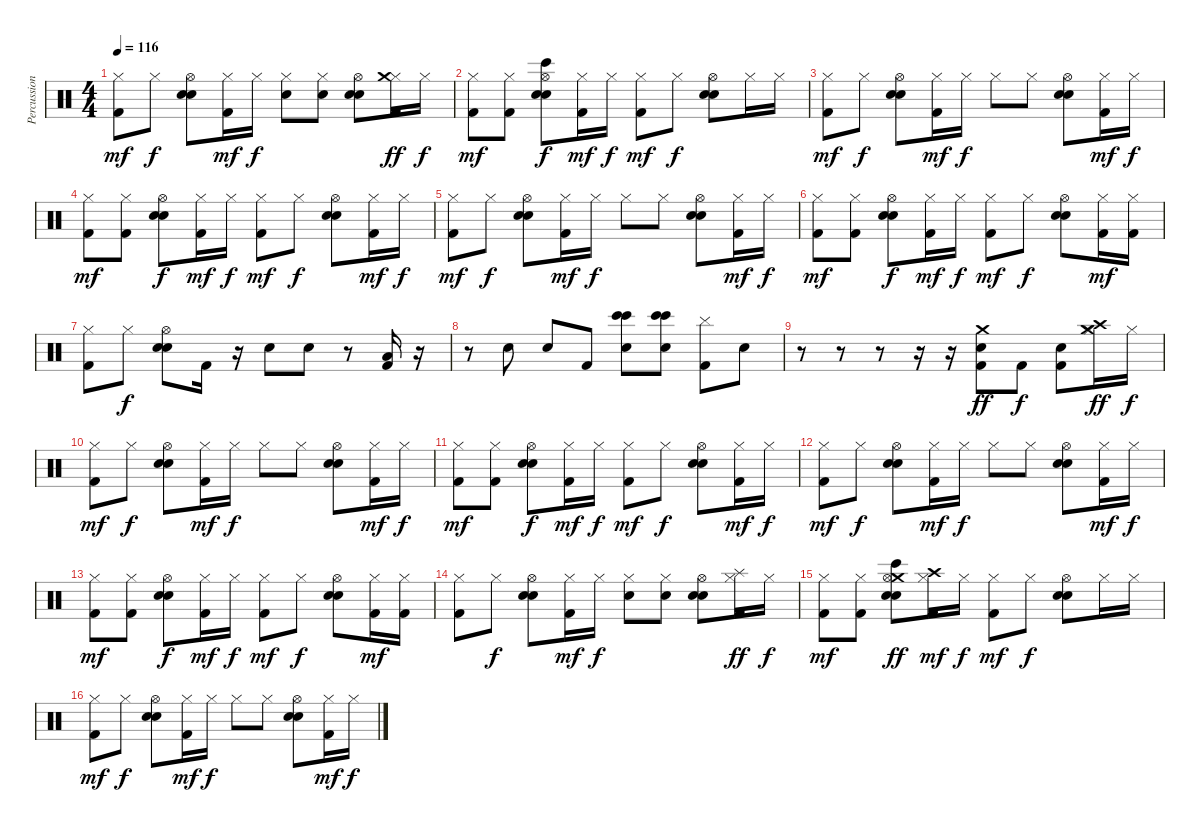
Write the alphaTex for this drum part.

\track ("Percussion" "Percussion") {instrument percussion}
\staff {score}
\articulation defaults
\ts (4 4)
\tempo 116
\clef neutral
\ks c
("Hi-Hat (closed)" "Kick (hit) 2").8{dy mf} "Hi-Hat (closed)".8{dy f} ("Hi-Hat (open)" "Electric Snare (hit)" "Hand Clap (hit)").8 ("Hi-Hat (closed)" "Kick (hit) 2").16{dy mf} "Hi-Hat (closed)".16{dy f} ("Hi-Hat (closed)" "Electric Snare (hit)").8 ("Hi-Hat (closed)" "Electric Snare (hit)").8 ("Hi-Hat (open)" "Electric Snare (hit)" "Hand Clap (hit)").8 ("Hi-Hat (closed)" "Kick (hit) 2" "Crash medium (hit)").16{dy ff} "Hi-Hat (closed)".16{dy f} |
("Hi-Hat (closed)" "Kick (hit) 2").8{dy mf} ("Hi-Hat (closed)" "Kick (hit) 2").8 ("Hi-Hat (open)" "Electric Snare (hit)" "Hand Clap (hit)" "Bongo High (hit)").8{dy f} ("Hi-Hat (closed)" "Kick (hit) 2").16{dy mf} "Hi-Hat (closed)".16{dy f} ("Hi-Hat (closed)" "Kick (hit) 2").8{dy mf} "Hi-Hat (closed)".8{dy f} ("Hi-Hat (open)" "Electric Snare (hit)" "Hand Clap (hit)").8 "Hi-Hat (closed)".16 "Hi-Hat (closed)".16 |
("Hi-Hat (closed)" "Kick (hit) 2").8{dy mf} "Hi-Hat (closed)".8{dy f} ("Hi-Hat (open)" "Electric Snare (hit)" "Hand Clap (hit)").8 ("Hi-Hat (closed)" "Kick (hit) 2").16{dy mf} "Hi-Hat (closed)".16{dy f} "Hi-Hat (closed)".8 "Hi-Hat (closed)".8 ("Hi-Hat (open)" "Electric Snare (hit)" "Hand Clap (hit)").8 ("Hi-Hat (closed)" "Kick (hit) 2").16{dy mf} "Hi-Hat (closed)".16{dy f} |
("Hi-Hat (closed)" "Kick (hit) 2").8{dy mf} ("Hi-Hat (closed)" "Kick (hit) 2").8 ("Hi-Hat (open)" "Electric Snare (hit)" "Hand Clap (hit)").8{dy f} ("Hi-Hat (closed)" "Kick (hit) 2").16{dy mf} "Hi-Hat (closed)".16{dy f} ("Hi-Hat (closed)" "Kick (hit) 2").8{dy mf} "Hi-Hat (closed)".8{dy f} ("Hi-Hat (open)" "Electric Snare (hit)" "Hand Clap (hit)").8 ("Hi-Hat (closed)" "Kick (hit) 2").16{dy mf} "Hi-Hat (closed)".16{dy f} |
("Hi-Hat (closed)" "Kick (hit) 2").8{dy mf} "Hi-Hat (closed)".8{dy f} ("Hi-Hat (open)" "Electric Snare (hit)" "Hand Clap (hit)").8 ("Hi-Hat (closed)" "Kick (hit) 2").16{dy mf} "Hi-Hat (closed)".16{dy f} "Hi-Hat (closed)".8 "Hi-Hat (closed)".8 ("Hi-Hat (open)" "Electric Snare (hit)" "Hand Clap (hit)").8 ("Hi-Hat (closed)" "Kick (hit) 2").16{dy mf} "Hi-Hat (closed)".16{dy f} |
("Hi-Hat (closed)" "Kick (hit) 2").8{dy mf} ("Hi-Hat (closed)" "Kick (hit) 2").8 ("Hi-Hat (open)" "Electric Snare (hit)" "Hand Clap (hit)").8{dy f} ("Hi-Hat (closed)" "Kick (hit) 2").16{dy mf} "Hi-Hat (closed)".16{dy f} ("Hi-Hat (closed)" "Kick (hit) 2").8{dy mf} "Hi-Hat (closed)".8{dy f} ("Hi-Hat (open)" "Electric Snare (hit)" "Hand Clap (hit)").8 ("Hi-Hat (closed)" "Kick (hit) 2").16{dy mf} ("Hi-Hat (closed)" "Kick (hit) 2").16 |
("Hi-Hat (closed)" "Kick (hit) 2").8 "Hi-Hat (closed)".8{dy f} ("Hi-Hat (open)" "Electric Snare (hit)" "Hand Clap (hit)").8 "Kick (hit) 2".16 r.16 "Electric Snare (hit)".8 "Electric Snare (hit)".8 r.8 ("Kick (hit) 2" "Low Floor Tom (hit)").16 r.16 |
r.8 "Electric Snare (hit)".8 "Electric Snare (hit)".8 "Kick (hit) 2".8 ("Electric Snare (hit)" "Bongo High (hit)" "Bongo High (hit)").8 ("Electric Snare (hit)" "Bongo High (hit)" "Bongo High (hit)").8 ("Kick (hit) 2" "Cymbal (hit)").8 "Electric Snare (hit)".8 |
r.8 r.8 r.8 r.16 r.16 ("Crash medium (hit)" "Electric Snare (hit)" "Kick (hit) 2").8{dy ff} "Kick (hit) 2".8{dy f} ("Electric Snare (hit)" "Kick (hit) 2").8 ("Hi-Hat (closed)" "Crash high (hit)" "Crash medium (hit)").16{dy ff} "Hi-Hat (closed)".16{dy f} |
("Hi-Hat (closed)" "Kick (hit) 2").8{dy mf} "Hi-Hat (closed)".8{dy f} ("Hi-Hat (open)" "Electric Snare (hit)" "Hand Clap (hit)").8 ("Hi-Hat (closed)" "Kick (hit) 2").16{dy mf} "Hi-Hat (closed)".16{dy f} "Hi-Hat (closed)".8 "Hi-Hat (closed)".8 ("Hi-Hat (open)" "Electric Snare (hit)" "Hand Clap (hit)").8 ("Hi-Hat (closed)" "Kick (hit) 2").16{dy mf} "Hi-Hat (closed)".16{dy f} |
("Hi-Hat (closed)" "Kick (hit) 2").8{dy mf} ("Hi-Hat (closed)" "Kick (hit) 2").8 ("Hi-Hat (open)" "Electric Snare (hit)" "Hand Clap (hit)").8{dy f} ("Hi-Hat (closed)" "Kick (hit) 2").16{dy mf} "Hi-Hat (closed)".16{dy f} ("Hi-Hat (closed)" "Kick (hit) 2").8{dy mf} "Hi-Hat (closed)".8{dy f} ("Hi-Hat (open)" "Electric Snare (hit)" "Hand Clap (hit)").8 ("Hi-Hat (closed)" "Kick (hit) 2").16{dy mf} "Hi-Hat (closed)".16{dy f} |
("Hi-Hat (closed)" "Kick (hit) 2").8{dy mf} "Hi-Hat (closed)".8{dy f} ("Hi-Hat (open)" "Electric Snare (hit)" "Hand Clap (hit)").8 ("Hi-Hat (closed)" "Kick (hit) 2").16{dy mf} "Hi-Hat (closed)".16{dy f} "Hi-Hat (closed)".8 "Hi-Hat (closed)".8 ("Hi-Hat (open)" "Electric Snare (hit)" "Hand Clap (hit)").8 ("Hi-Hat (closed)" "Kick (hit) 2").16{dy mf} "Hi-Hat (closed)".16{dy f} |
("Hi-Hat (closed)" "Kick (hit) 2").8{dy mf} ("Hi-Hat (closed)" "Kick (hit) 2").8 ("Hi-Hat (open)" "Electric Snare (hit)" "Hand Clap (hit)").8{dy f} ("Hi-Hat (closed)" "Kick (hit) 2").16{dy mf} "Hi-Hat (closed)".16{dy f} ("Hi-Hat (closed)" "Kick (hit) 2").8{dy mf} "Hi-Hat (closed)".8{dy f} ("Hi-Hat (open)" "Electric Snare (hit)" "Hand Clap (hit)").8 ("Hi-Hat (closed)" "Kick (hit) 2").16{dy mf} ("Hi-Hat (closed)" "Kick (hit) 2").16 |
("Hi-Hat (closed)" "Kick (hit) 2").8 "Hi-Hat (closed)".8{dy f} ("Hi-Hat (open)" "Electric Snare (hit)" "Hand Clap (hit)").8 ("Hi-Hat (closed)" "Kick (hit) 2").16{dy mf} "Hi-Hat (closed)".16{dy f} ("Hi-Hat (closed)" "Electric Snare (hit)").8 ("Hi-Hat (closed)" "Electric Snare (hit)").8 ("Hi-Hat (open)" "Electric Snare (hit)" "Hand Clap (hit)").8 ("Hi-Hat (closed)" "Kick (hit) 2" "Splash (hit)").16{dy ff} "Hi-Hat (closed)".16{dy f} |
("Hi-Hat (closed)" "Kick (hit) 2").8{dy mf} ("Hi-Hat (closed)" "Kick (hit) 2").8 ("Crash medium (hit)" "Hi-Hat (open)" "Electric Snare (hit)" "Hand Clap (hit)" "Bongo High (hit)").8{dy ff} ("Crash high (hit)" "Hi-Hat (closed)" "Kick (hit) 2").16{dy mf} "Hi-Hat (closed)".16{dy f} ("Hi-Hat (closed)" "Kick (hit) 2").8{dy mf} "Hi-Hat (closed)".8{dy f} ("Hi-Hat (open)" "Electric Snare (hit)" "Hand Clap (hit)").8 "Hi-Hat (closed)".16 "Hi-Hat (closed)".16 |
("Hi-Hat (closed)" "Kick (hit) 2").8{dy mf} "Hi-Hat (closed)".8{dy f} ("Hi-Hat (open)" "Electric Snare (hit)" "Hand Clap (hit)").8 ("Hi-Hat (closed)" "Kick (hit) 2").16{dy mf} "Hi-Hat (closed)".16{dy f} "Hi-Hat (closed)".8 "Hi-Hat (closed)".8 ("Hi-Hat (open)" "Electric Snare (hit)" "Hand Clap (hit)").8 ("Hi-Hat (closed)" "Kick (hit) 2").16{dy mf} "Hi-Hat (closed)".16{dy f}
